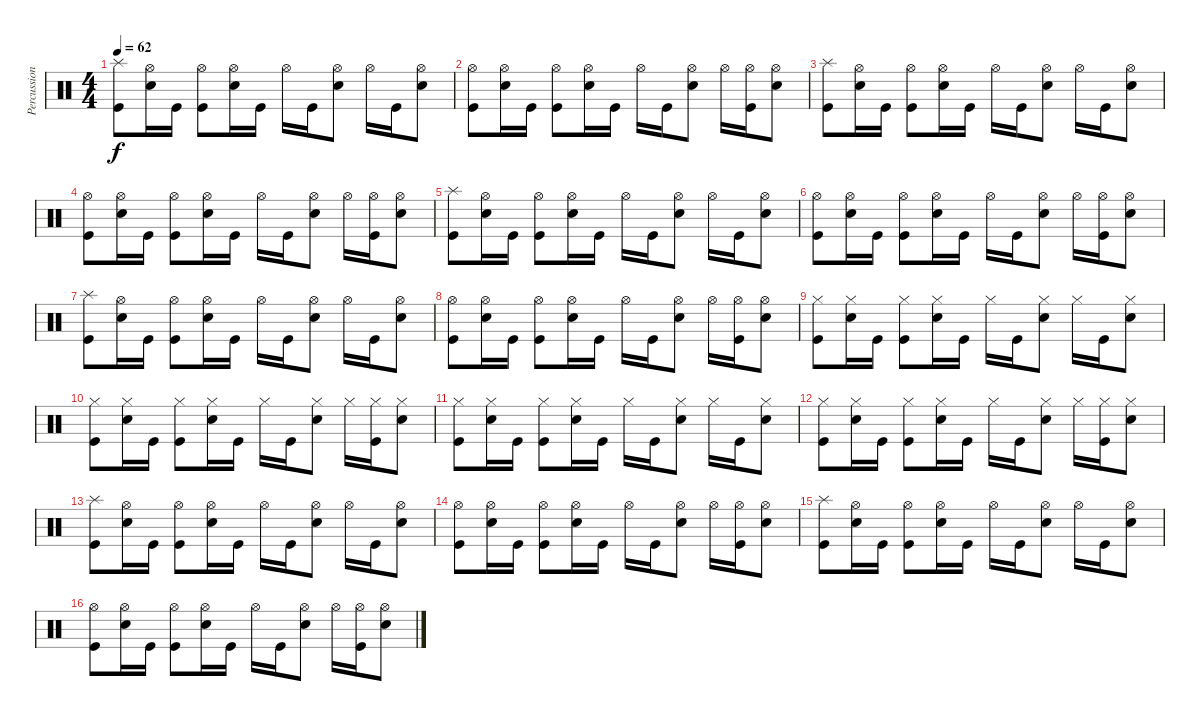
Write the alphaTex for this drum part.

\track ("Percussion" "Percussion") {instrument percussion}
\staff {score}
\articulation defaults
\ts (4 4)
\tempo 62
\clef neutral
\ks c
("Splash (hit)" "Kick (hit)").8{dy f} ("Hi-Hat (open)" "Electric Snare (hit)").16 "Kick (hit)".16 ("Hi-Hat (open)" "Kick (hit)").8 ("Hi-Hat (open)" "Electric Snare (hit)").16 "Kick (hit)".16 "Hi-Hat (open)".16 "Kick (hit)".16 ("Hi-Hat (open)" "Electric Snare (hit)").8 "Hi-Hat (open)".16 "Kick (hit)".16 ("Hi-Hat (open)" "Electric Snare (hit)").8 |
("Hi-Hat (open)" "Kick (hit)").8 ("Hi-Hat (open)" "Electric Snare (hit)").16 "Kick (hit)".16 ("Hi-Hat (open)" "Kick (hit)").8 ("Hi-Hat (open)" "Electric Snare (hit)").16 "Kick (hit)".16 "Hi-Hat (open)".16 "Kick (hit)".16 ("Hi-Hat (open)" "Electric Snare (hit)").8 "Hi-Hat (open)".16 ("Hi-Hat (open)" "Kick (hit)").16 ("Hi-Hat (open)" "Electric Snare (hit)").8 |
("Splash (hit)" "Kick (hit)").8 ("Hi-Hat (open)" "Electric Snare (hit)").16 "Kick (hit)".16 ("Hi-Hat (open)" "Kick (hit)").8 ("Hi-Hat (open)" "Electric Snare (hit)").16 "Kick (hit)".16 "Hi-Hat (open)".16 "Kick (hit)".16 ("Hi-Hat (open)" "Electric Snare (hit)").8 "Hi-Hat (open)".16 "Kick (hit)".16 ("Hi-Hat (open)" "Electric Snare (hit)").8 |
("Hi-Hat (open)" "Kick (hit)").8 ("Hi-Hat (open)" "Electric Snare (hit)").16 "Kick (hit)".16 ("Hi-Hat (open)" "Kick (hit)").8 ("Hi-Hat (open)" "Electric Snare (hit)").16 "Kick (hit)".16 "Hi-Hat (open)".16 "Kick (hit)".16 ("Hi-Hat (open)" "Electric Snare (hit)").8 "Hi-Hat (open)".16 ("Hi-Hat (open)" "Kick (hit)").16 ("Hi-Hat (open)" "Electric Snare (hit)").8 |
("Splash (hit)" "Kick (hit)").8 ("Hi-Hat (open)" "Electric Snare (hit)").16 "Kick (hit)".16 ("Hi-Hat (open)" "Kick (hit)").8 ("Hi-Hat (open)" "Electric Snare (hit)").16 "Kick (hit)".16 "Hi-Hat (open)".16 "Kick (hit)".16 ("Hi-Hat (open)" "Electric Snare (hit)").8 "Hi-Hat (open)".16 "Kick (hit)".16 ("Hi-Hat (open)" "Electric Snare (hit)").8 |
("Hi-Hat (open)" "Kick (hit)").8 ("Hi-Hat (open)" "Electric Snare (hit)").16 "Kick (hit)".16 ("Hi-Hat (open)" "Kick (hit)").8 ("Hi-Hat (open)" "Electric Snare (hit)").16 "Kick (hit)".16 "Hi-Hat (open)".16 "Kick (hit)".16 ("Hi-Hat (open)" "Electric Snare (hit)").8 "Hi-Hat (open)".16 ("Hi-Hat (open)" "Kick (hit)").16 ("Hi-Hat (open)" "Electric Snare (hit)").8 |
("Splash (hit)" "Kick (hit)").8 ("Hi-Hat (open)" "Electric Snare (hit)").16 "Kick (hit)".16 ("Hi-Hat (open)" "Kick (hit)").8 ("Hi-Hat (open)" "Electric Snare (hit)").16 "Kick (hit)".16 "Hi-Hat (open)".16 "Kick (hit)".16 ("Hi-Hat (open)" "Electric Snare (hit)").8 "Hi-Hat (open)".16 "Kick (hit)".16 ("Hi-Hat (open)" "Electric Snare (hit)").8 |
("Hi-Hat (open)" "Kick (hit)").8 ("Hi-Hat (open)" "Electric Snare (hit)").16 "Kick (hit)".16 ("Hi-Hat (open)" "Kick (hit)").8 ("Hi-Hat (open)" "Electric Snare (hit)").16 "Kick (hit)".16 "Hi-Hat (open)".16 "Kick (hit)".16 ("Hi-Hat (open)" "Electric Snare (hit)").8 "Hi-Hat (open)".16 ("Hi-Hat (open)" "Kick (hit)").16 ("Hi-Hat (open)" "Electric Snare (hit)").8 |
("Hi-Hat (closed)" "Kick (hit)").8 ("Hi-Hat (closed)" "Electric Snare (hit)").16 "Kick (hit)".16 ("Hi-Hat (closed)" "Kick (hit)").8 ("Hi-Hat (closed)" "Electric Snare (hit)").16 "Kick (hit)".16 "Hi-Hat (closed)".16 "Kick (hit)".16 ("Hi-Hat (closed)" "Electric Snare (hit)").8 "Hi-Hat (closed)".16 "Kick (hit)".16 ("Hi-Hat (closed)" "Electric Snare (hit)").8 |
("Hi-Hat (closed)" "Kick (hit)").8 ("Hi-Hat (closed)" "Electric Snare (hit)").16 "Kick (hit)".16 ("Hi-Hat (closed)" "Kick (hit)").8 ("Hi-Hat (closed)" "Electric Snare (hit)").16 "Kick (hit)".16 "Hi-Hat (closed)".16 "Kick (hit)".16 ("Hi-Hat (closed)" "Electric Snare (hit)").8 "Hi-Hat (closed)".16 ("Hi-Hat (closed)" "Kick (hit)").16 ("Hi-Hat (closed)" "Electric Snare (hit)").8 |
("Hi-Hat (closed)" "Kick (hit)").8 ("Hi-Hat (closed)" "Electric Snare (hit)").16 "Kick (hit)".16 ("Hi-Hat (closed)" "Kick (hit)").8 ("Hi-Hat (closed)" "Electric Snare (hit)").16 "Kick (hit)".16 "Hi-Hat (closed)".16 "Kick (hit)".16 ("Hi-Hat (closed)" "Electric Snare (hit)").8 "Hi-Hat (closed)".16 "Kick (hit)".16 ("Hi-Hat (closed)" "Electric Snare (hit)").8 |
("Hi-Hat (closed)" "Kick (hit)").8 ("Hi-Hat (closed)" "Electric Snare (hit)").16 "Kick (hit)".16 ("Hi-Hat (closed)" "Kick (hit)").8 ("Hi-Hat (closed)" "Electric Snare (hit)").16 "Kick (hit)".16 "Hi-Hat (closed)".16 "Kick (hit)".16 ("Hi-Hat (closed)" "Electric Snare (hit)").8 "Hi-Hat (closed)".16 ("Hi-Hat (closed)" "Kick (hit)").16 ("Hi-Hat (closed)" "Electric Snare (hit)").8 |
("Splash (hit)" "Kick (hit)").8 ("Hi-Hat (open)" "Electric Snare (hit)").16 "Kick (hit)".16 ("Hi-Hat (open)" "Kick (hit)").8 ("Hi-Hat (open)" "Electric Snare (hit)").16 "Kick (hit)".16 "Hi-Hat (open)".16 "Kick (hit)".16 ("Hi-Hat (open)" "Electric Snare (hit)").8 "Hi-Hat (open)".16 "Kick (hit)".16 ("Hi-Hat (open)" "Electric Snare (hit)").8 |
("Hi-Hat (open)" "Kick (hit)").8 ("Hi-Hat (open)" "Electric Snare (hit)").16 "Kick (hit)".16 ("Hi-Hat (open)" "Kick (hit)").8 ("Hi-Hat (open)" "Electric Snare (hit)").16 "Kick (hit)".16 "Hi-Hat (open)".16 "Kick (hit)".16 ("Hi-Hat (open)" "Electric Snare (hit)").8 "Hi-Hat (open)".16 ("Hi-Hat (open)" "Kick (hit)").16 ("Hi-Hat (open)" "Electric Snare (hit)").8 |
("Splash (hit)" "Kick (hit)").8 ("Hi-Hat (open)" "Electric Snare (hit)").16 "Kick (hit)".16 ("Hi-Hat (open)" "Kick (hit)").8 ("Hi-Hat (open)" "Electric Snare (hit)").16 "Kick (hit)".16 "Hi-Hat (open)".16 "Kick (hit)".16 ("Hi-Hat (open)" "Electric Snare (hit)").8 "Hi-Hat (open)".16 "Kick (hit)".16 ("Hi-Hat (open)" "Electric Snare (hit)").8 |
("Hi-Hat (open)" "Kick (hit)").8 ("Hi-Hat (open)" "Electric Snare (hit)").16 "Kick (hit)".16 ("Hi-Hat (open)" "Kick (hit)").8 ("Hi-Hat (open)" "Electric Snare (hit)").16 "Kick (hit)".16 "Hi-Hat (open)".16 "Kick (hit)".16 ("Hi-Hat (open)" "Electric Snare (hit)").8 "Hi-Hat (open)".16 ("Hi-Hat (open)" "Kick (hit)").16 ("Hi-Hat (open)" "Electric Snare (hit)").8
